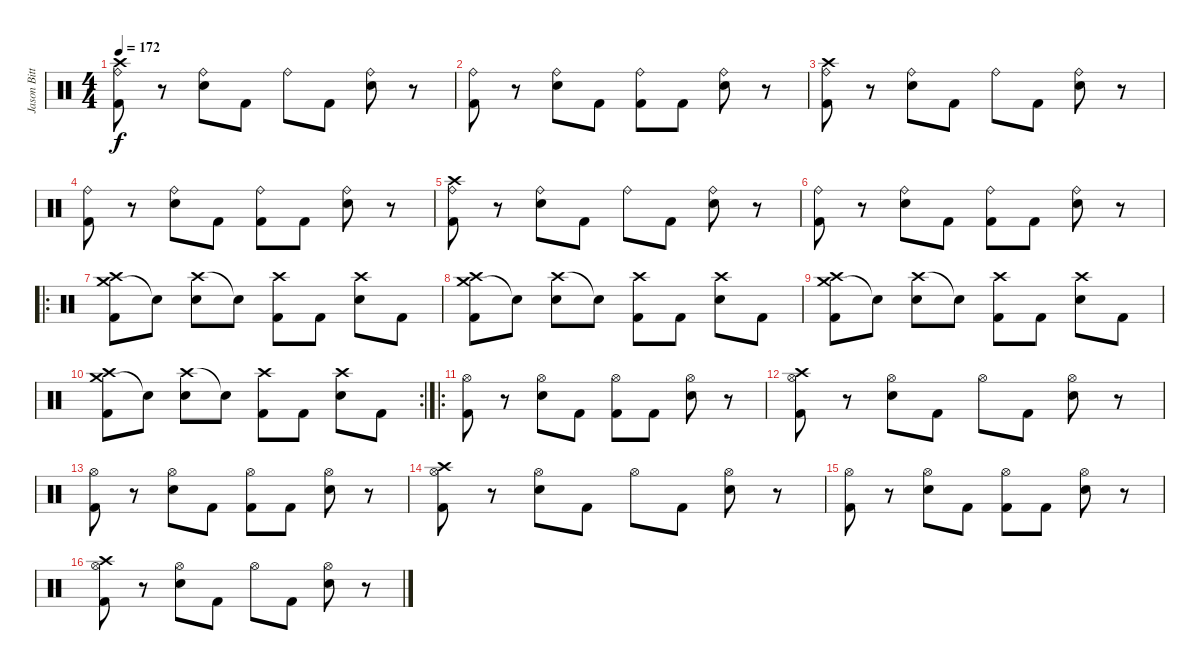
\track ("Jason Bittner" "Jason Bitt") {instrument percussion}
\staff {score}
\articulation defaults
\ts (4 4)
\tempo 172
\clef neutral
\ks c
("Crash high (hit)" "Ride (bell)" "Kick (hit) 2").8{dy f} r.8 ("Ride (bell)" "Electric Snare (hit)").8 "Kick (hit) 2".8 "Ride (bell)".8 "Kick (hit) 2".8 ("Ride (bell)" "Electric Snare (hit)").8 r.8 |
("Ride (bell)" "Kick (hit) 2").8 r.8 ("Ride (bell)" "Electric Snare (hit)").8 "Kick (hit) 2".8 ("Kick (hit) 2" "Ride (bell)").8 "Kick (hit) 2".8 ("Ride (bell)" "Electric Snare (hit)").8 r.8 |
("Crash high (hit)" "Ride (bell)" "Kick (hit) 2").8 r.8 ("Ride (bell)" "Electric Snare (hit)").8 "Kick (hit) 2".8 "Ride (bell)".8 "Kick (hit) 2".8 ("Ride (bell)" "Electric Snare (hit)").8 r.8 |
("Ride (bell)" "Kick (hit) 2").8 r.8 ("Ride (bell)" "Electric Snare (hit)").8 "Kick (hit) 2".8 ("Kick (hit) 2" "Ride (bell)").8 "Kick (hit) 2".8 ("Ride (bell)" "Electric Snare (hit)").8 r.8 |
("Crash high (hit)" "Ride (bell)" "Kick (hit) 2").8 r.8 ("Ride (bell)" "Electric Snare (hit)").8 "Kick (hit) 2".8 "Ride (bell)".8 "Kick (hit) 2".8 ("Ride (bell)" "Electric Snare (hit)").8 r.8 |
("Ride (bell)" "Kick (hit) 2").8 r.8 ("Ride (bell)" "Electric Snare (hit)").8 "Kick (hit) 2".8 ("Kick (hit) 2" "Ride (bell)").8 "Kick (hit) 2".8 ("Ride (bell)" "Electric Snare (hit)").8 r.8 |
\ro
("Crash medium (hit)" "Crash high (hit)" "Kick (hit) 2").8 "Snare (hit)"{t}.8 ("Crash high (hit)" "Electric Snare (hit)").8 "Snare (hit)"{t}.8 ("Crash high (hit)" "Kick (hit) 2").8 "Kick (hit) 2".8 ("Crash high (hit)" "Electric Snare (hit)").8 "Kick (hit) 2".8 |
("Crash medium (hit)" "Crash high (hit)" "Kick (hit) 2").8 "Snare (hit)"{t}.8 ("Crash high (hit)" "Electric Snare (hit)").8 "Snare (hit)"{t}.8 ("Crash high (hit)" "Kick (hit) 2").8 "Kick (hit) 2".8 ("Crash high (hit)" "Electric Snare (hit)").8 "Kick (hit) 2".8 |
("Crash medium (hit)" "Crash high (hit)" "Kick (hit) 2").8 "Snare (hit)"{t}.8 ("Crash high (hit)" "Electric Snare (hit)").8 "Snare (hit)"{t}.8 ("Crash high (hit)" "Kick (hit) 2").8 "Kick (hit) 2".8 ("Crash high (hit)" "Electric Snare (hit)").8 "Kick (hit) 2".8 |
\rc 2
("Crash medium (hit)" "Crash high (hit)" "Kick (hit) 2").8 "Snare (hit)"{t}.8 ("Crash high (hit)" "Electric Snare (hit)").8 "Snare (hit)"{t}.8 ("Crash high (hit)" "Kick (hit) 2").8 "Kick (hit) 2".8 ("Crash high (hit)" "Electric Snare (hit)").8 "Kick (hit) 2".8 |
\ro
("Hi-Hat (open)" "Kick (hit) 2").8 r.8 ("Hi-Hat (open)" "Electric Snare (hit)").8 "Kick (hit) 2".8 ("Hi-Hat (open)" "Kick (hit) 2").8 "Kick (hit) 2".8 ("Hi-Hat (open)" "Electric Snare (hit)").8 r.8 |
("Crash high (hit)" "Hi-Hat (open)" "Kick (hit) 2").8 r.8 ("Hi-Hat (open)" "Electric Snare (hit)").8 "Kick (hit) 2".8 "Hi-Hat (open)".8 "Kick (hit) 2".8 ("Hi-Hat (open)" "Electric Snare (hit)").8 r.8 |
("Hi-Hat (open)" "Kick (hit) 2").8 r.8 ("Hi-Hat (open)" "Electric Snare (hit)").8 "Kick (hit) 2".8 ("Hi-Hat (open)" "Kick (hit) 2").8 "Kick (hit) 2".8 ("Hi-Hat (open)" "Electric Snare (hit)").8 r.8 |
("Crash high (hit)" "Hi-Hat (open)" "Kick (hit) 2").8 r.8 ("Hi-Hat (open)" "Electric Snare (hit)").8 "Kick (hit) 2".8 "Hi-Hat (open)".8 "Kick (hit) 2".8 ("Hi-Hat (open)" "Electric Snare (hit)").8 r.8 |
("Hi-Hat (open)" "Kick (hit) 2").8 r.8 ("Hi-Hat (open)" "Electric Snare (hit)").8 "Kick (hit) 2".8 ("Hi-Hat (open)" "Kick (hit) 2").8 "Kick (hit) 2".8 ("Hi-Hat (open)" "Electric Snare (hit)").8 r.8 |
("Crash high (hit)" "Hi-Hat (open)" "Kick (hit) 2").8 r.8 ("Hi-Hat (open)" "Electric Snare (hit)").8 "Kick (hit) 2".8 "Hi-Hat (open)".8 "Kick (hit) 2".8 ("Hi-Hat (open)" "Electric Snare (hit)").8 r.8
